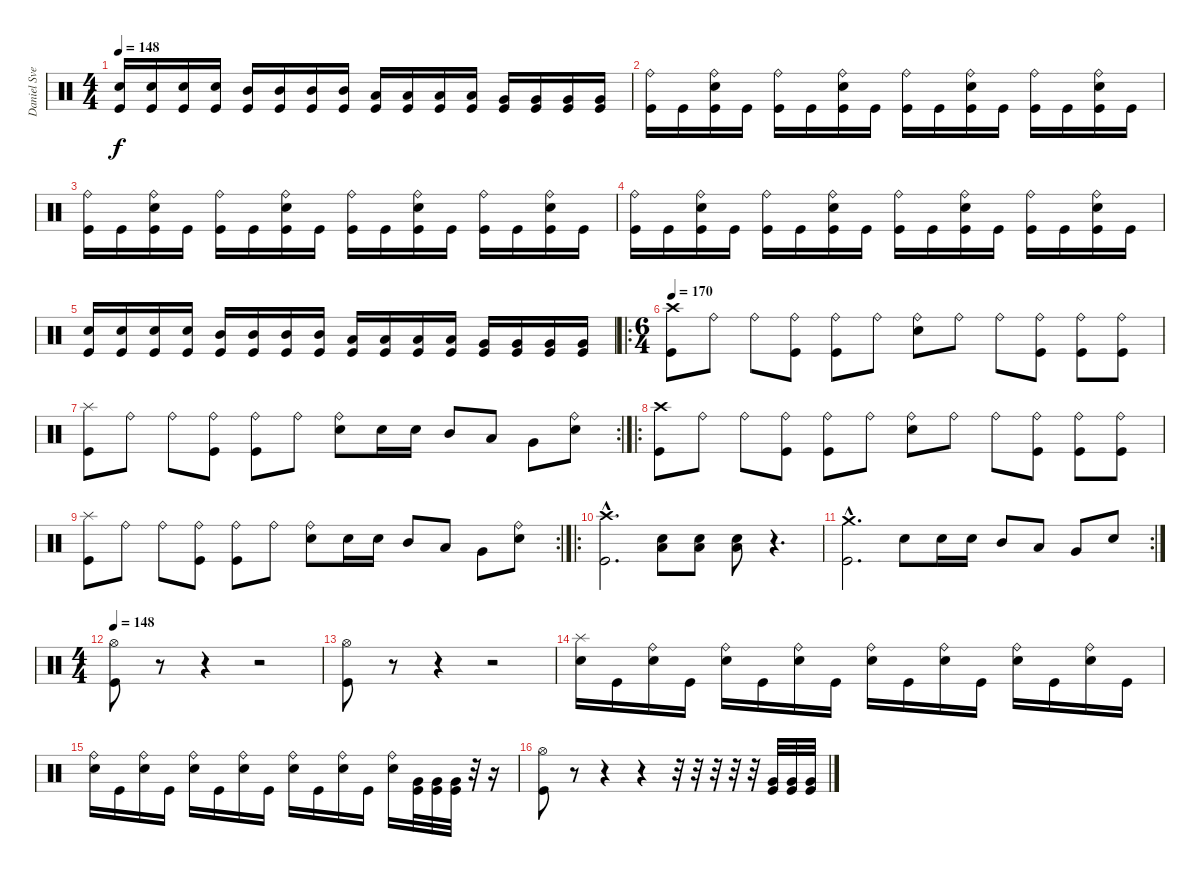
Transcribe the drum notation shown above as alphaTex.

\track ("Daniel Svenson" "Daniel Sve") {instrument percussion}
\staff {score}
\articulation defaults
\ts (4 4)
\tempo 148
\clef neutral
\ks c
("Kick (hit)" "Electric Snare (hit)").16{dy f} ("Kick (hit)" "Electric Snare (hit)").16 ("Kick (hit)" "Electric Snare (hit)").16 ("Kick (hit)" "Electric Snare (hit)").16 ("Kick (hit)" "Mid Tom (hit)").16 ("Kick (hit)" "Mid Tom (hit)").16 ("Kick (hit)" "Mid Tom (hit)").16 ("Kick (hit)" "Mid Tom (hit)").16 ("Kick (hit)" "Low Tom (hit)").16 ("Kick (hit)" "Low Tom (hit)").16 ("Kick (hit)" "Low Tom (hit)").16 ("Kick (hit)" "Low Tom (hit)").16 ("Kick (hit)" "Very Low Tom (hit)").16 ("Kick (hit)" "Very Low Tom (hit)").16 ("Kick (hit)" "Very Low Tom (hit)").16 ("Kick (hit)" "Very Low Tom (hit)").16 |
("Kick (hit)" "Ride (bell)").16 "Kick (hit)".16 ("Kick (hit)" "Electric Snare (hit)" "Ride (bell)").16 "Kick (hit)".16 ("Kick (hit)" "Ride (bell)").16 "Kick (hit)".16 ("Kick (hit)" "Electric Snare (hit)" "Ride (bell)").16 "Kick (hit)".16 ("Kick (hit)" "Ride (bell)").16 "Kick (hit)".16 ("Kick (hit)" "Electric Snare (hit)" "Ride (bell)").16 "Kick (hit)".16 ("Kick (hit)" "Ride (bell)").16 "Kick (hit)".16 ("Kick (hit)" "Electric Snare (hit)" "Ride (bell)").16 "Kick (hit)".16 |
("Kick (hit)" "Ride (bell)").16 "Kick (hit)".16 ("Kick (hit)" "Electric Snare (hit)" "Ride (bell)").16 "Kick (hit)".16 ("Kick (hit)" "Ride (bell)").16 "Kick (hit)".16 ("Kick (hit)" "Electric Snare (hit)" "Ride (bell)").16 "Kick (hit)".16 ("Kick (hit)" "Ride (bell)").16 "Kick (hit)".16 ("Kick (hit)" "Electric Snare (hit)" "Ride (bell)").16 "Kick (hit)".16 ("Kick (hit)" "Ride (bell)").16 "Kick (hit)".16 ("Kick (hit)" "Electric Snare (hit)" "Ride (bell)").16 "Kick (hit)".16 |
("Kick (hit)" "Ride (bell)").16 "Kick (hit)".16 ("Kick (hit)" "Electric Snare (hit)" "Ride (bell)").16 "Kick (hit)".16 ("Kick (hit)" "Ride (bell)").16 "Kick (hit)".16 ("Kick (hit)" "Electric Snare (hit)" "Ride (bell)").16 "Kick (hit)".16 ("Kick (hit)" "Ride (bell)").16 "Kick (hit)".16 ("Kick (hit)" "Electric Snare (hit)" "Ride (bell)").16 "Kick (hit)".16 ("Kick (hit)" "Ride (bell)").16 "Kick (hit)".16 ("Kick (hit)" "Electric Snare (hit)" "Ride (bell)").16 "Kick (hit)".16 |
("Kick (hit)" "Electric Snare (hit)").16 ("Kick (hit)" "Electric Snare (hit)").16 ("Kick (hit)" "Electric Snare (hit)").16 ("Kick (hit)" "Electric Snare (hit)").16 ("Kick (hit)" "Mid Tom (hit)").16 ("Kick (hit)" "Mid Tom (hit)").16 ("Kick (hit)" "Mid Tom (hit)").16 ("Kick (hit)" "Mid Tom (hit)").16 ("Kick (hit)" "Low Tom (hit)").16 ("Kick (hit)" "Low Tom (hit)").16 ("Kick (hit)" "Low Tom (hit)").16 ("Kick (hit)" "Low Tom (hit)").16 ("Kick (hit)" "Very Low Tom (hit)").16 ("Kick (hit)" "Very Low Tom (hit)").16 ("Kick (hit)" "Very Low Tom (hit)").16 ("Kick (hit)" "Very Low Tom (hit)").16 |
\ro
\ts (6 4)
\tempo 170
("Kick (hit)" "Crash high (hit)").8 "Ride (bell)".8 "Ride (bell)".8 ("Kick (hit)" "Ride (bell)").8 ("Kick (hit)" "Ride (bell)").8 "Ride (bell)".8 ("Electric Snare (hit)" "Ride (bell)").8 "Ride (bell)".8 "Ride (bell)".8 ("Kick (hit)" "Ride (bell)").8 ("Kick (hit)" "Ride (bell)").8 ("Kick (hit)" "Ride (bell)").8 |
\rc 2
("Kick (hit)" "Splash (hit)").8 "Ride (bell)".8 "Ride (bell)".8 ("Kick (hit)" "Ride (bell)").8 ("Kick (hit)" "Ride (bell)").8 "Ride (bell)".8 ("Electric Snare (hit)" "Ride (bell)").8 "Electric Snare (hit)".16 "Electric Snare (hit)".16 "Mid Tom (hit)".8 "Low Tom (hit)".8 "Very Low Tom (hit)".8 ("Electric Snare (hit)" "Ride (bell)").8 |
\ro
("Kick (hit)" "Crash high (hit)").8 "Ride (bell)".8 "Ride (bell)".8 ("Kick (hit)" "Ride (bell)").8 ("Kick (hit)" "Ride (bell)").8 "Ride (bell)".8 ("Electric Snare (hit)" "Ride (bell)").8 "Ride (bell)".8 "Ride (bell)".8 ("Kick (hit)" "Ride (bell)").8 ("Kick (hit)" "Ride (bell)").8 ("Kick (hit)" "Ride (bell)").8 |
\rc 2
("Kick (hit)" "Splash (hit)").8 "Ride (bell)".8 "Ride (bell)".8 ("Kick (hit)" "Ride (bell)").8 ("Kick (hit)" "Ride (bell)").8 "Ride (bell)".8 ("Electric Snare (hit)" "Ride (bell)").8 "Electric Snare (hit)".16 "Electric Snare (hit)".16 "Mid Tom (hit)".8 "Low Tom (hit)".8 "Very Low Tom (hit)".8 ("Electric Snare (hit)" "Ride (bell)").8 |
\ro
("Kick (hit)"{hac} "Crash high (hit)"{hac}).2{d} ("Electric Snare (hit)" "Low Floor Tom (hit)").8 ("Electric Snare (hit)" "Low Floor Tom (hit)").8 ("Electric Snare (hit)" "Low Floor Tom (hit)").8 r.4{d} |
\rc 2
("Kick (hit)"{hac} "Crash medium (hit)"{hac}).2{d} "Electric Snare (hit)".8 "Electric Snare (hit)".16 "Electric Snare (hit)".16 "Mid Tom (hit)".8 "Low Tom (hit)".8 "Very Low Tom (hit)".8 "Electric Snare (hit)".8 |
\ts (4 4)
\tempo 148
("Kick (hit)" "Hi-Hat (open)").8 r.8 r.4 r.2 |
("Kick (hit)" "Hi-Hat (open)").8 r.8 r.4 r.2 |
("Electric Snare (hit)" "Splash (hit)").16 "Kick (hit)".16 ("Electric Snare (hit)" "Ride (bell)").16 "Kick (hit)".16 ("Electric Snare (hit)" "Ride (bell)").16 "Kick (hit)".16 ("Electric Snare (hit)" "Ride (bell)").16 "Kick (hit)".16 ("Electric Snare (hit)" "Ride (bell)").16 "Kick (hit)".16 ("Electric Snare (hit)" "Ride (bell)").16 "Kick (hit)".16 ("Electric Snare (hit)" "Ride (bell)").16 "Kick (hit)".16 ("Electric Snare (hit)" "Ride (bell)").16 "Kick (hit)".16 |
("Electric Snare (hit)" "Ride (bell)").16 "Kick (hit)".16 ("Electric Snare (hit)" "Ride (bell)").16 "Kick (hit)".16 ("Electric Snare (hit)" "Ride (bell)").16 "Kick (hit)".16 ("Electric Snare (hit)" "Ride (bell)").16 "Kick (hit)".16 ("Electric Snare (hit)" "Ride (bell)").16 "Kick (hit)".16 ("Electric Snare (hit)" "Ride (bell)").16 "Kick (hit)".16 ("Electric Snare (hit)" "Ride (bell)").16 ("Kick (hit)" "Very Low Tom (hit)").32 ("Kick (hit)" "Very Low Tom (hit)").32 ("Kick (hit)" "Very Low Tom (hit)").32 r.32 r.16 |
("Kick (hit)" "Hi-Hat (open)").8 r.8 r.4 r.4 r.32 r.32 r.32 r.32 r.32 ("Kick (hit)" "Very Low Tom (hit)").32 ("Kick (hit)" "Very Low Tom (hit)").32 ("Kick (hit)" "Very Low Tom (hit)").32
